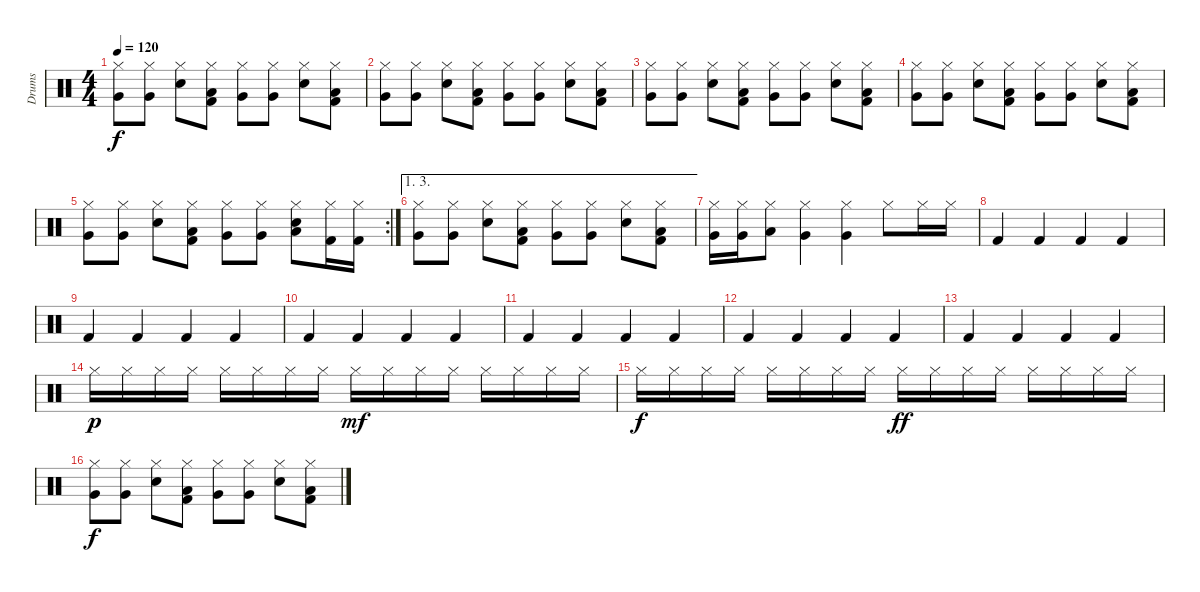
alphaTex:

\track ("Drums" "Drums") {instrument percussion}
\staff {score}
\articulation defaults
\ts (4 4)
\tempo 120
\clef neutral
\ks c
("Very Low Tom (hit)" "Hi-Hat (closed)").8{dy f} ("Very Low Tom (hit)" "Hi-Hat (closed)").8 ("Snare (hit) 2" "Hi-Hat (closed)").8 ("Low Floor Tom (hit)" "Kick (hit) 2" "Hi-Hat (closed)").8 ("Very Low Tom (hit)" "Hi-Hat (closed)").8 ("Very Low Tom (hit)" "Hi-Hat (closed)").8 ("Snare (hit) 2" "Hi-Hat (closed)").8 ("Low Floor Tom (hit)" "Kick (hit) 2" "Hi-Hat (closed)").8 |
("Very Low Tom (hit)" "Hi-Hat (closed)").8 ("Very Low Tom (hit)" "Hi-Hat (closed)").8 ("Snare (hit) 2" "Hi-Hat (closed)").8 ("Low Floor Tom (hit)" "Kick (hit) 2" "Hi-Hat (closed)").8 ("Very Low Tom (hit)" "Hi-Hat (closed)").8 ("Very Low Tom (hit)" "Hi-Hat (closed)").8 ("Snare (hit) 2" "Hi-Hat (closed)").8 ("Low Floor Tom (hit)" "Kick (hit) 2" "Hi-Hat (closed)").8 |
("Very Low Tom (hit)" "Hi-Hat (closed)").8 ("Very Low Tom (hit)" "Hi-Hat (closed)").8 ("Snare (hit) 2" "Hi-Hat (closed)").8 ("Low Floor Tom (hit)" "Kick (hit) 2" "Hi-Hat (closed)").8 ("Very Low Tom (hit)" "Hi-Hat (closed)").8 ("Very Low Tom (hit)" "Hi-Hat (closed)").8 ("Snare (hit) 2" "Hi-Hat (closed)").8 ("Low Floor Tom (hit)" "Kick (hit) 2" "Hi-Hat (closed)").8 |
("Very Low Tom (hit)" "Hi-Hat (closed)").8 ("Very Low Tom (hit)" "Hi-Hat (closed)").8 ("Snare (hit) 2" "Hi-Hat (closed)").8 ("Low Floor Tom (hit)" "Kick (hit) 2" "Hi-Hat (closed)").8 ("Very Low Tom (hit)" "Hi-Hat (closed)").8 ("Very Low Tom (hit)" "Hi-Hat (closed)").8 ("Snare (hit) 2" "Hi-Hat (closed)").8 ("Low Floor Tom (hit)" "Kick (hit) 2" "Hi-Hat (closed)").8 |
\rc 2
("Very Low Tom (hit)" "Hi-Hat (closed)").8 ("Very Low Tom (hit)" "Hi-Hat (closed)").8 ("Snare (hit) 2" "Hi-Hat (closed)").8 ("Low Floor Tom (hit)" "Kick (hit) 2" "Hi-Hat (closed)").8 ("Very Low Tom (hit)" "Hi-Hat (closed)").8 ("Very Low Tom (hit)" "Hi-Hat (closed)").8 ("Low Floor Tom (hit)" "Snare (hit) 2" "Hi-Hat (closed)").8 ("Kick (hit) 2" "Hi-Hat (closed)").16 ("Kick (hit) 2" "Hi-Hat (closed)").16 |
\ae (1 3)
("Very Low Tom (hit)" "Hi-Hat (closed)").8 ("Very Low Tom (hit)" "Hi-Hat (closed)").8 ("Snare (hit) 2" "Hi-Hat (closed)").8 ("Low Floor Tom (hit)" "Kick (hit) 2" "Hi-Hat (closed)").8 ("Very Low Tom (hit)" "Hi-Hat (closed)").8 ("Very Low Tom (hit)" "Hi-Hat (closed)").8 ("Snare (hit) 2" "Hi-Hat (closed)").8 ("Low Floor Tom (hit)" "Kick (hit) 2" "Hi-Hat (closed)").8 |
("Very Low Tom (hit)" "Hi-Hat (closed)").16 ("Very Low Tom (hit)" "Hi-Hat (closed)").16 ("Low Floor Tom (hit)" "Hi-Hat (closed)").8 ("Very Low Tom (hit)" "Hi-Hat (closed)").4 ("Very Low Tom (hit)" "Hi-Hat (closed)").4 "Hi-Hat (closed)".8 "Hi-Hat (closed)".16 "Hi-Hat (closed)".16 |
"Kick (hit) 2".4 "Kick (hit) 2".4 "Kick (hit) 2".4 "Kick (hit) 2".4 |
"Kick (hit) 2".4 "Kick (hit) 2".4 "Kick (hit) 2".4 "Kick (hit) 2".4 |
"Kick (hit) 2".4 "Kick (hit) 2".4 "Kick (hit) 2".4 "Kick (hit) 2".4 |
"Kick (hit) 2".4 "Kick (hit) 2".4 "Kick (hit) 2".4 "Kick (hit) 2".4 |
"Kick (hit) 2".4 "Kick (hit) 2".4 "Kick (hit) 2".4 "Kick (hit) 2".4 |
"Kick (hit) 2".4 "Kick (hit) 2".4 "Kick (hit) 2".4 "Kick (hit) 2".4 |
"Hi-Hat (closed)".16{dy p} "Hi-Hat (closed)".16 "Hi-Hat (closed)".16 "Hi-Hat (closed)".16 "Hi-Hat (closed)".16 "Hi-Hat (closed)".16 "Hi-Hat (closed)".16 "Hi-Hat (closed)".16 "Hi-Hat (closed)".16{dy mf} "Hi-Hat (closed)".16 "Hi-Hat (closed)".16 "Hi-Hat (closed)".16 "Hi-Hat (closed)".16 "Hi-Hat (closed)".16 "Hi-Hat (closed)".16 "Hi-Hat (closed)".16 |
"Hi-Hat (closed)".16{dy f} "Hi-Hat (closed)".16 "Hi-Hat (closed)".16 "Hi-Hat (closed)".16 "Hi-Hat (closed)".16 "Hi-Hat (closed)".16 "Hi-Hat (closed)".16 "Hi-Hat (closed)".16 "Hi-Hat (closed)".16{dy ff} "Hi-Hat (closed)".16 "Hi-Hat (closed)".16 "Hi-Hat (closed)".16 "Hi-Hat (closed)".16 "Hi-Hat (closed)".16 "Hi-Hat (closed)".16 "Hi-Hat (closed)".16 |
("Very Low Tom (hit)" "Hi-Hat (closed)").8{dy f} ("Very Low Tom (hit)" "Hi-Hat (closed)").8 ("Snare (hit) 2" "Hi-Hat (closed)").8 ("Low Floor Tom (hit)" "Kick (hit) 2" "Hi-Hat (closed)").8 ("Very Low Tom (hit)" "Hi-Hat (closed)").8 ("Very Low Tom (hit)" "Hi-Hat (closed)").8 ("Snare (hit) 2" "Hi-Hat (closed)").8 ("Low Floor Tom (hit)" "Kick (hit) 2" "Hi-Hat (closed)").8
